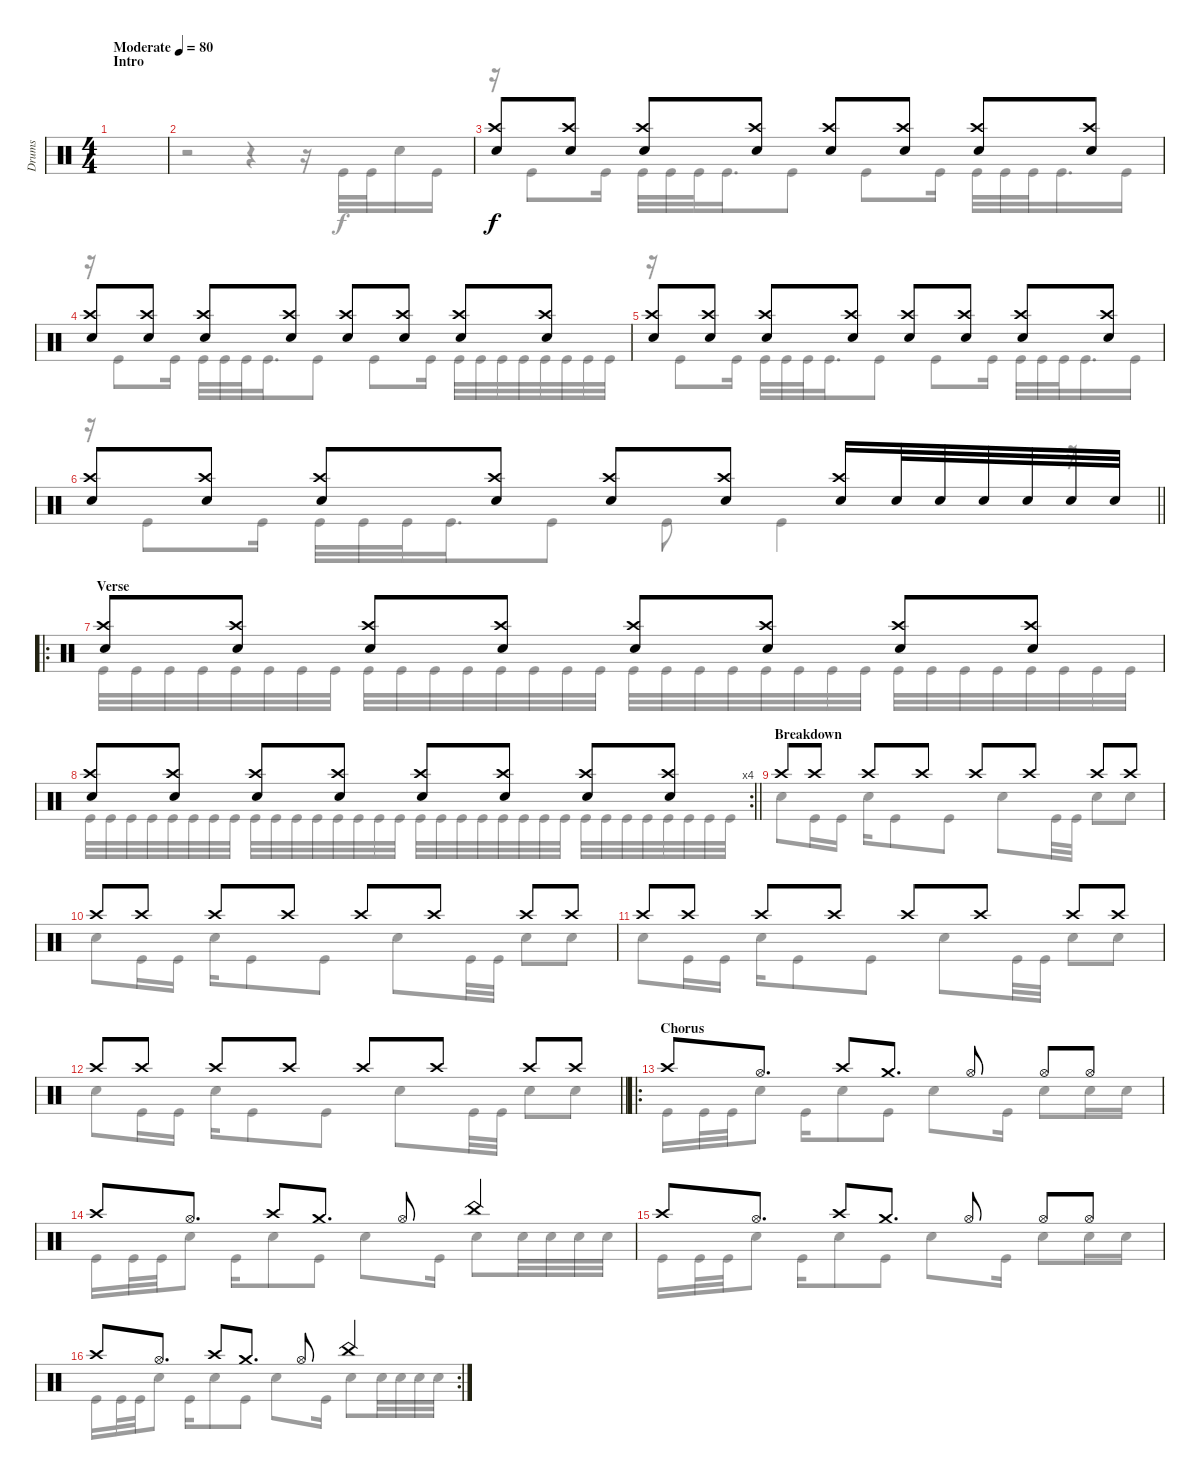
\track ("Drums" "Drums") {instrument percussion}
\staff {score}
\articulation defaults
\voice
\ts (4 4)
\section ("" "Intro")
\tempo (80 "Moderate")
\clef neutral
\ks c
|
|
("Snare (hit) 2" "Crash high (hit)").8 ("Snare (hit) 2" "Crash high (hit)").8 ("Snare (hit) 2" "Crash high (hit)").8 ("Snare (hit) 2" "Crash high (hit)").8 ("Snare (hit) 2" "Crash high (hit)").8 ("Snare (hit) 2" "Crash high (hit)").8 ("Snare (hit) 2" "Crash high (hit)").8 ("Snare (hit) 2" "Crash high (hit)").8 |
("Snare (hit) 2" "Crash high (hit)").8 ("Snare (hit) 2" "Crash high (hit)").8 ("Snare (hit) 2" "Crash high (hit)").8 ("Snare (hit) 2" "Crash high (hit)").8 ("Snare (hit) 2" "Crash high (hit)").8 ("Snare (hit) 2" "Crash high (hit)").8 ("Snare (hit) 2" "Crash high (hit)").8 ("Snare (hit) 2" "Crash high (hit)").8 |
("Snare (hit) 2" "Crash high (hit)").8 ("Snare (hit) 2" "Crash high (hit)").8 ("Snare (hit) 2" "Crash high (hit)").8 ("Snare (hit) 2" "Crash high (hit)").8 ("Snare (hit) 2" "Crash high (hit)").8 ("Snare (hit) 2" "Crash high (hit)").8 ("Snare (hit) 2" "Crash high (hit)").8 ("Snare (hit) 2" "Crash high (hit)").8 |
\barLineRight lightlight
("Snare (hit) 2" "Crash high (hit)").8 ("Snare (hit) 2" "Crash high (hit)").8 ("Snare (hit) 2" "Crash high (hit)").8 ("Snare (hit) 2" "Crash high (hit)").8 ("Snare (hit) 2" "Crash high (hit)").8 ("Snare (hit) 2" "Crash high (hit)").8 ("Snare (hit) 2" "Crash high (hit)").16 "Snare (hit) 2".32 "Snare (hit) 2".32 "Snare (hit) 2".32 "Snare (hit) 2".32 "Snare (hit) 2".32 "Snare (hit) 2".32 |
\ro
\section ("" "Verse")
("Snare (hit) 2" "Crash high (hit)").8 ("Snare (hit) 2" "Crash high (hit)").8 ("Snare (hit) 2" "Crash high (hit)").8 ("Snare (hit) 2" "Crash high (hit)").8 ("Snare (hit) 2" "Crash high (hit)").8 ("Snare (hit) 2" "Crash high (hit)").8 ("Snare (hit) 2" "Crash high (hit)").8 ("Snare (hit) 2" "Crash high (hit)").8 |
\rc 4
\barLineRight lightlight
("Snare (hit) 2" "Crash high (hit)").8 ("Snare (hit) 2" "Crash high (hit)").8 ("Snare (hit) 2" "Crash high (hit)").8 ("Snare (hit) 2" "Crash high (hit)").8 ("Snare (hit) 2" "Crash high (hit)").8 ("Snare (hit) 2" "Crash high (hit)").8 ("Snare (hit) 2" "Crash high (hit)").8 ("Snare (hit) 2" "Crash high (hit)").8 |
\section ("" "Breakdown")
"Crash high (hit)".8 "Crash high (hit)".8 "Crash high (hit)".8 "Crash high (hit)".8 "Crash high (hit)".8 "Crash high (hit)".8 "Crash high (hit)".8 "Crash high (hit)".8 |
"Crash high (hit)".8 "Crash high (hit)".8 "Crash high (hit)".8 "Crash high (hit)".8 "Crash high (hit)".8 "Crash high (hit)".8 "Crash high (hit)".8 "Crash high (hit)".8 |
"Crash high (hit)".8 "Crash high (hit)".8 "Crash high (hit)".8 "Crash high (hit)".8 "Crash high (hit)".8 "Crash high (hit)".8 "Crash high (hit)".8 "Crash high (hit)".8 |
\barLineRight lightlight "Crash high (hit)".8 "Crash high (hit)".8 "Crash high (hit)".8 "Crash high (hit)".8 "Crash high (hit)".8 "Crash high (hit)".8 "Crash high (hit)".8 "Crash high (hit)".8
|
\ro
\section ("" "Chorus")
"Crash high (hit)".8 "Hi-Hat (open)".8{d} "Crash high (hit)".8 "Crash medium (hit)".8{d} "Hi-Hat (open)".8 "Hi-Hat (open)".8 "Hi-Hat (open)".8 |
"Crash high (hit)".8 "Hi-Hat (open)".8{d} "Crash high (hit)".8 "Crash medium (hit)".8{d} "Hi-Hat (open)".8 "China (hit)".4 |
"Crash high (hit)".8 "Hi-Hat (open)".8{d} "Crash high (hit)".8 "Crash medium (hit)".8{d} "Hi-Hat (open)".8 "Hi-Hat (open)".8 "Hi-Hat (open)".8 |
\rc 2 "Crash high (hit)".8 "Hi-Hat (open)".8{d} "Crash high (hit)".8 "Crash medium (hit)".8{d} "Hi-Hat (open)".8 "China (hit)".4
\voice
\clef neutral
\ottava regular
\simile none
\ks c
|
r.2 r.4 r.16 "Kick (hit)".32 "Kick (hit)".32 "Snare (hit) 2".16 "Kick (hit)".16 |
r.16 "Kick (hit)".8 "Kick (hit)".16 "Kick (hit)".32 "Kick (hit)".32 "Kick (hit)".32 "Kick (hit)".16{d} "Kick (hit)".8 "Kick (hit)".8 "Kick (hit)".16 "Kick (hit)".32 "Kick (hit)".32 "Kick (hit)".32 "Kick (hit)".16{d} "Kick (hit)".16 |
r.16 "Kick (hit)".8 "Kick (hit)".16 "Kick (hit)".32 "Kick (hit)".32 "Kick (hit)".32 "Kick (hit)".16{d} "Kick (hit)".8 "Kick (hit)".8 "Kick (hit)".16 "Kick (hit)".32 "Kick (hit)".32 "Kick (hit)".32 "Kick (hit)".32 "Kick (hit)".32 "Kick (hit)".32 "Kick (hit)".32 "Kick (hit)".32 |
r.16 "Kick (hit)".8 "Kick (hit)".16 "Kick (hit)".32 "Kick (hit)".32 "Kick (hit)".32 "Kick (hit)".16{d} "Kick (hit)".8 "Kick (hit)".8 "Kick (hit)".16 "Kick (hit)".32 "Kick (hit)".32 "Kick (hit)".32 "Kick (hit)".16{d} "Kick (hit)".16 |
\barLineRight lightlight
r.16 "Kick (hit)".8 "Kick (hit)".16 "Kick (hit)".32 "Kick (hit)".32 "Kick (hit)".32 "Kick (hit)".16{d} "Kick (hit)".8 "Kick (hit)".8 "Kick (hit)".4 r.16 |
"Kick (hit)".32 "Kick (hit)".32 "Kick (hit)".32 "Kick (hit)".32 "Kick (hit)".32 "Kick (hit)".32 "Kick (hit)".32 "Kick (hit)".32 "Kick (hit)".32 "Kick (hit)".32 "Kick (hit)".32 "Kick (hit)".32 "Kick (hit)".32 "Kick (hit)".32 "Kick (hit)".32 "Kick (hit)".32 "Kick (hit)".32 "Kick (hit)".32 "Kick (hit)".32 "Kick (hit)".32 "Kick (hit)".32 "Kick (hit)".32 "Kick (hit)".32 "Kick (hit)".32 "Kick (hit)".32 "Kick (hit)".32 "Kick (hit)".32 "Kick (hit)".32 "Kick (hit)".32 "Kick (hit)".32 "Kick (hit)".32 "Kick (hit)".32 |
\barLineRight lightlight "Kick (hit)".32 "Kick (hit)".32 "Kick (hit)".32 "Kick (hit)".32 "Kick (hit)".32 "Kick (hit)".32 "Kick (hit)".32 "Kick (hit)".32 "Kick (hit)".32 "Kick (hit)".32 "Kick (hit)".32 "Kick (hit)".32 "Kick (hit)".32 "Kick (hit)".32 "Kick (hit)".32 "Kick (hit)".32 "Kick (hit)".32 "Kick (hit)".32 "Kick (hit)".32 "Kick (hit)".32 "Kick (hit)".32 "Kick (hit)".32 "Kick (hit)".32 "Kick (hit)".32 "Kick (hit)".32 "Kick (hit)".32 "Kick (hit)".32 "Kick (hit)".32 "Kick (hit)".32 "Kick (hit)".32 "Kick (hit)".32 "Kick (hit)".32
|
"Snare (hit) 2".8 "Kick (hit)".16 "Kick (hit)".16 "Snare (hit) 2".16 "Kick (hit)".8 "Kick (hit)".8 "Snare (hit) 2".8 "Kick (hit)".32 "Kick (hit)".32 "Snare (hit) 2".8 "Snare (hit) 2".8 |
"Snare (hit) 2".8 "Kick (hit)".16 "Kick (hit)".16 "Snare (hit) 2".16 "Kick (hit)".8 "Kick (hit)".8 "Snare (hit) 2".8 "Kick (hit)".32 "Kick (hit)".32 "Snare (hit) 2".8 "Snare (hit) 2".8 |
"Snare (hit) 2".8 "Kick (hit)".16 "Kick (hit)".16 "Snare (hit) 2".16 "Kick (hit)".8 "Kick (hit)".8 "Snare (hit) 2".8 "Kick (hit)".32 "Kick (hit)".32 "Snare (hit) 2".8 "Snare (hit) 2".8 |
\barLineRight lightlight "Snare (hit) 2".8 "Kick (hit)".16 "Kick (hit)".16 "Snare (hit) 2".16 "Kick (hit)".8 "Kick (hit)".8 "Snare (hit) 2".8 "Kick (hit)".32 "Kick (hit)".32 "Snare (hit) 2".8 "Snare (hit) 2".8
|
"Kick (hit)".16 "Kick (hit)".32 "Kick (hit)".32 "Snare (hit) 2".8 "Kick (hit)".16 "Snare (hit) 2".8 "Kick (hit)".8 "Snare (hit) 2".8 "Kick (hit)".16 "Snare (hit) 2".8 "Snare (hit) 2".16 "Snare (hit) 2".16 |
"Kick (hit)".16 "Kick (hit)".32 "Kick (hit)".32 "Snare (hit) 2".8 "Kick (hit)".16 "Snare (hit) 2".8 "Kick (hit)".8 "Snare (hit) 2".8 "Kick (hit)".16 "Snare (hit) 2".8 "Snare (hit) 2".32 "Snare (hit) 2".32 "Snare (hit) 2".32 "Snare (hit) 2".32 |
"Kick (hit)".16 "Kick (hit)".32 "Kick (hit)".32 "Snare (hit) 2".8 "Kick (hit)".16 "Snare (hit) 2".8 "Kick (hit)".8 "Snare (hit) 2".8 "Kick (hit)".16 "Snare (hit) 2".8 "Snare (hit) 2".16 "Snare (hit) 2".16 |
"Kick (hit)".16 "Kick (hit)".32 "Kick (hit)".32 "Snare (hit) 2".8 "Kick (hit)".16 "Snare (hit) 2".8 "Kick (hit)".8 "Snare (hit) 2".8 "Kick (hit)".16 "Snare (hit) 2".8 "Snare (hit) 2".32 "Snare (hit) 2".32 "Snare (hit) 2".32 "Snare (hit) 2".32
